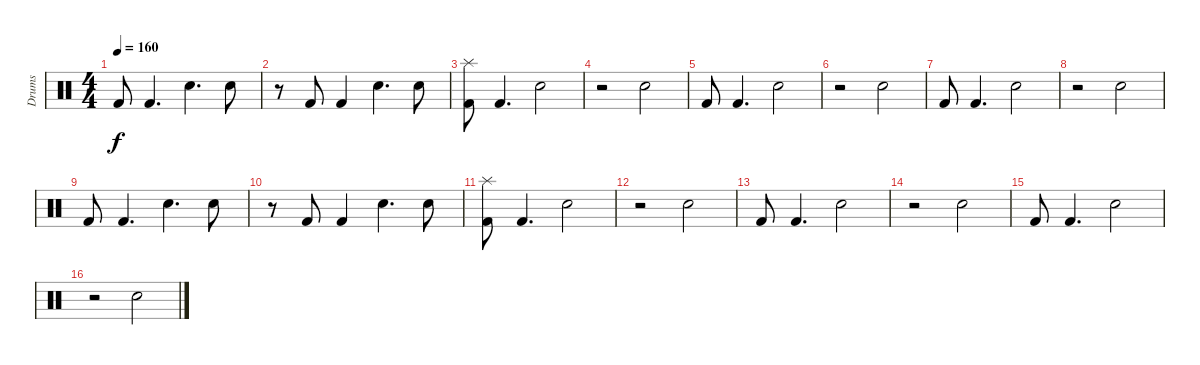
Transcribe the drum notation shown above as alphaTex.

\track ("Drums" "Drums") {instrument percussion}
\staff {score}
\articulation defaults
\ts (4 4)
\tempo 160
\clef neutral
\ks c "Kick (hit) 2".8{dy f} "Kick (hit) 2".4{d} "Snare (hit) 2".4{d} "Snare (hit) 2".8
|
r.8 "Kick (hit) 2".8 "Kick (hit) 2".4 "Snare (hit) 2".4{d} "Snare (hit) 2".8 |
("Kick (hit) 2" "Splash (hit)").8 "Kick (hit) 2".4{d} "Snare (hit) 2".2 |
r.2 "Snare (hit) 2".2 |
"Kick (hit) 2".8 "Kick (hit) 2".4{d} "Snare (hit) 2".2 |
r.2 "Snare (hit) 2".2 |
"Kick (hit) 2".8 "Kick (hit) 2".4{d} "Snare (hit) 2".2 |
r.2 "Snare (hit) 2".2 |
"Kick (hit) 2".8 "Kick (hit) 2".4{d} "Snare (hit) 2".4{d} "Snare (hit) 2".8 |
r.8 "Kick (hit) 2".8 "Kick (hit) 2".4 "Snare (hit) 2".4{d} "Snare (hit) 2".8 |
("Kick (hit) 2" "Splash (hit)").8 "Kick (hit) 2".4{d} "Snare (hit) 2".2 |
r.2 "Snare (hit) 2".2 |
"Kick (hit) 2".8 "Kick (hit) 2".4{d} "Snare (hit) 2".2 |
r.2 "Snare (hit) 2".2 |
"Kick (hit) 2".8 "Kick (hit) 2".4{d} "Snare (hit) 2".2 |
r.2 "Snare (hit) 2".2
